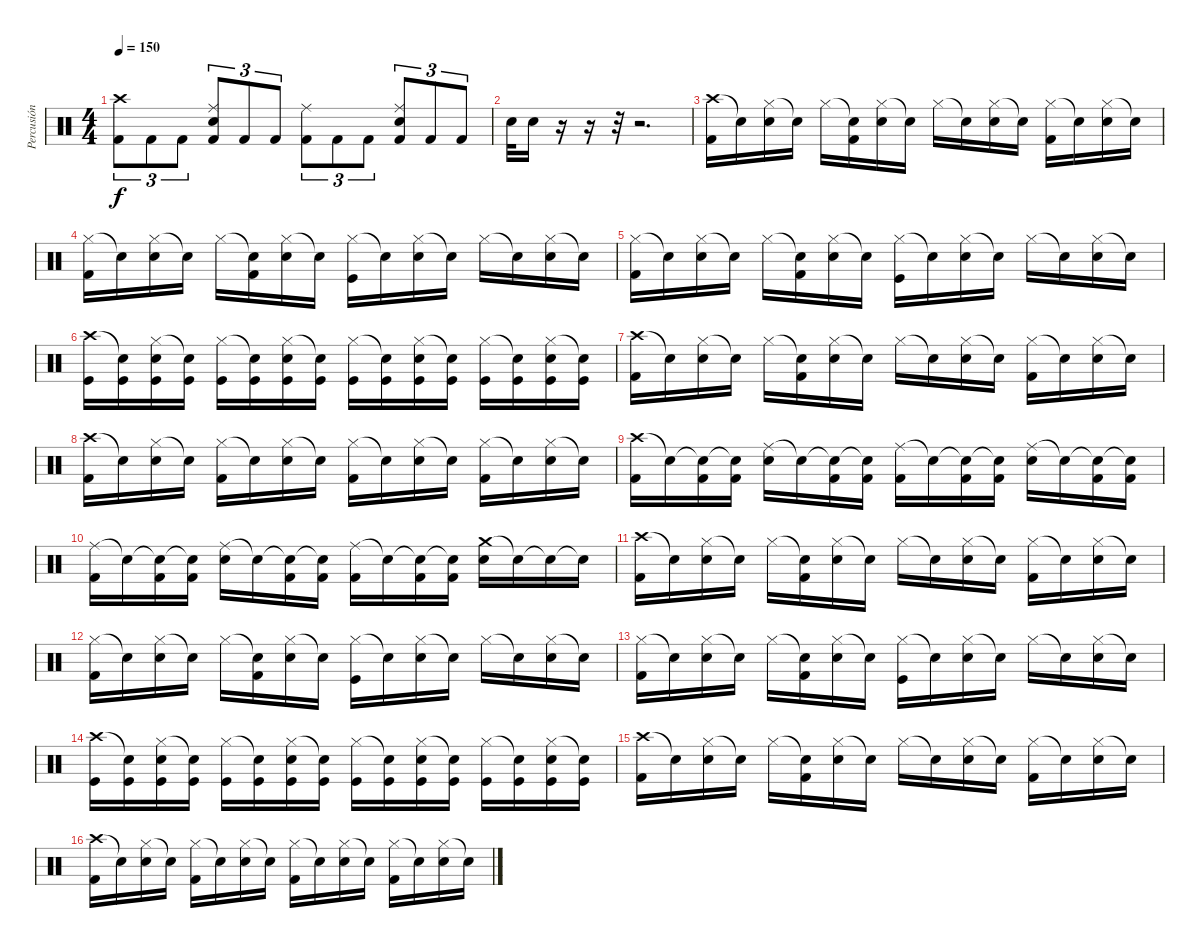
\track ("Percusión" "Percusión") {instrument percussion}
\staff {score}
\articulation defaults
\ts (4 4)
\tempo 150
\clef neutral
\ks c
("Crash high (hit)" "Kick (hit) 2").8{tu (3 2) dy f} "Kick (hit) 2".8{tu (3 2)} "Kick (hit) 2".8{tu (3 2)} ("Ride (middle)" "Electric Snare (hit)" "Kick (hit) 2").8{tu (3 2)} "Kick (hit) 2".8{tu (3 2)} "Kick (hit) 2".8{tu (3 2)} ("Ride (middle)" "Kick (hit) 2").8{tu (3 2)} "Kick (hit) 2".8{tu (3 2)} "Kick (hit) 2".8{tu (3 2)} ("Ride (middle)" "Electric Snare (hit)" "Kick (hit) 2").8{tu (3 2)} "Kick (hit) 2".8{tu (3 2)} "Kick (hit) 2".8{tu (3 2)} |
"Electric Snare (hit)".32 "Electric Snare (hit)".16 r.16 r.16 r.32 r.2{d} |
("Crash high (hit)" "Kick (hit) 2").16 "Snare (hit)"{t}.16 ("Hi-Hat (closed)" "Electric Snare (hit)").16 "Snare (hit)"{t}.16 "Hi-Hat (closed)".16 ("Snare (hit)"{t} "Kick (hit) 2").16 ("Hi-Hat (closed)" "Electric Snare (hit)").16 "Snare (hit)"{t}.16 "Hi-Hat (closed)".16 "Snare (hit)"{t}.16 ("Hi-Hat (closed)" "Electric Snare (hit)").16 "Snare (hit)"{t}.16 ("Hi-Hat (closed)" "Kick (hit) 2").16 "Snare (hit)"{t}.16 ("Hi-Hat (closed)" "Electric Snare (hit)").16 "Snare (hit)"{t}.16 |
("Hi-Hat (closed)" "Kick (hit) 2").16 "Snare (hit)"{t}.16 ("Hi-Hat (closed)" "Electric Snare (hit)").16 "Snare (hit)"{t}.16 "Hi-Hat (closed)".16 ("Snare (hit)"{t} "Kick (hit) 2").16 ("Hi-Hat (closed)" "Electric Snare (hit)").16 "Snare (hit)"{t}.16 ("Hi-Hat (closed)" "Kick (hit)").16 "Snare (hit)"{t}.16 ("Hi-Hat (closed)" "Electric Snare (hit)").16 "Snare (hit)"{t}.16 "Hi-Hat (closed)".16 "Snare (hit)"{t}.16 ("Hi-Hat (closed)" "Electric Snare (hit)").16 "Snare (hit)"{t}.16 |
("Hi-Hat (closed)" "Kick (hit) 2").16 "Snare (hit)"{t}.16 ("Hi-Hat (closed)" "Electric Snare (hit)").16 "Snare (hit)"{t}.16 "Hi-Hat (closed)".16 ("Snare (hit)"{t} "Kick (hit) 2").16 ("Hi-Hat (closed)" "Electric Snare (hit)").16 "Snare (hit)"{t}.16 ("Hi-Hat (closed)" "Kick (hit)").16 "Snare (hit)"{t}.16 ("Hi-Hat (closed)" "Electric Snare (hit)").16 "Snare (hit)"{t}.16 "Hi-Hat (closed)".16 "Snare (hit)"{t}.16 ("Hi-Hat (closed)" "Electric Snare (hit)").16 "Snare (hit)"{t}.16 |
("Crash high (hit)" "Kick (hit)").16 ("Snare (hit)"{t} "Kick (hit)").16 ("Hi-Hat (closed)" "Electric Snare (hit)" "Kick (hit)").16 ("Snare (hit)"{t} "Kick (hit)").16 ("Hi-Hat (closed)" "Kick (hit)").16 ("Snare (hit)"{t} "Kick (hit)").16 ("Hi-Hat (closed)" "Electric Snare (hit)" "Kick (hit)").16 ("Snare (hit)"{t} "Kick (hit)").16 ("Hi-Hat (closed)" "Kick (hit)").16 ("Snare (hit)"{t} "Kick (hit)").16 ("Hi-Hat (closed)" "Electric Snare (hit)" "Kick (hit)").16 ("Snare (hit)"{t} "Kick (hit)").16 ("Hi-Hat (closed)" "Kick (hit)").16 ("Snare (hit)"{t} "Kick (hit)").16 ("Hi-Hat (closed)" "Electric Snare (hit)" "Kick (hit)").16 ("Snare (hit)"{t} "Kick (hit)").16 |
("Crash high (hit)" "Kick (hit) 2").16 "Snare (hit)"{t}.16 ("Hi-Hat (closed)" "Electric Snare (hit)").16 "Snare (hit)"{t}.16 "Hi-Hat (closed)".16 ("Snare (hit)"{t} "Kick (hit) 2").16 ("Hi-Hat (closed)" "Electric Snare (hit)").16 "Snare (hit)"{t}.16 "Hi-Hat (closed)".16 "Snare (hit)"{t}.16 ("Hi-Hat (closed)" "Electric Snare (hit)").16 "Snare (hit)"{t}.16 ("Hi-Hat (closed)" "Kick (hit) 2").16 "Snare (hit)"{t}.16 ("Hi-Hat (closed)" "Electric Snare (hit)").16 "Snare (hit)"{t}.16 |
("Crash high (hit)" "Kick (hit) 2").16 "Snare (hit)"{t}.16 ("Hi-Hat (closed)" "Electric Snare (hit)").16 "Snare (hit)"{t}.16 ("Hi-Hat (closed)" "Kick (hit) 2").16 "Snare (hit)"{t}.16 ("Hi-Hat (closed)" "Electric Snare (hit)").16 "Snare (hit)"{t}.16 ("Hi-Hat (closed)" "Kick (hit) 2").16 "Snare (hit)"{t}.16 ("Hi-Hat (closed)" "Electric Snare (hit)").16 "Snare (hit)"{t}.16 ("Hi-Hat (closed)" "Kick (hit) 2").16 "Snare (hit)"{t}.16 ("Hi-Hat (closed)" "Electric Snare (hit)").16 "Snare (hit)"{t}.16 |
("Crash high (hit)" "Kick (hit) 2").16 "Snare (hit)"{t}.16 ("Snare (hit)"{t} "Kick (hit) 2").16 ("Snare (hit)"{t} "Kick (hit) 2").16 ("Ride (middle)" "Electric Snare (hit)").16 "Snare (hit)"{t}.16 ("Snare (hit)"{t} "Kick (hit) 2").16 ("Snare (hit)"{t} "Kick (hit) 2").16 ("Ride (middle)" "Kick (hit) 2").16 "Snare (hit)"{t}.16 ("Snare (hit)"{t} "Kick (hit) 2").16 ("Snare (hit)"{t} "Kick (hit) 2").16 ("Ride (middle)" "Electric Snare (hit)").16 "Snare (hit)"{t}.16 ("Snare (hit)"{t} "Kick (hit) 2").16 ("Snare (hit)"{t} "Kick (hit) 2").16 |
("Ride (middle)" "Kick (hit) 2").16 "Snare (hit)"{t}.16 ("Snare (hit)"{t} "Kick (hit) 2").16 ("Snare (hit)"{t} "Kick (hit) 2").16 ("Ride (middle)" "Electric Snare (hit)").16 "Snare (hit)"{t}.16 ("Snare (hit)"{t} "Kick (hit) 2").16 ("Snare (hit)"{t} "Kick (hit) 2").16 ("Ride (middle)" "Kick (hit) 2").16 "Snare (hit)"{t}.16 ("Snare (hit)"{t} "Kick (hit) 2").16 ("Snare (hit)"{t} "Kick (hit) 2").16 ("Crash medium (hit)" "Electric Snare (hit)").16 "Snare (hit)"{t}.16 "Snare (hit)"{t}.16 "Snare (hit)"{t}.16 |
("Crash high (hit)" "Kick (hit) 2").16 "Snare (hit)"{t}.16 ("Hi-Hat (closed)" "Electric Snare (hit)").16 "Snare (hit)"{t}.16 "Hi-Hat (closed)".16 ("Snare (hit)"{t} "Kick (hit) 2").16 ("Hi-Hat (closed)" "Electric Snare (hit)").16 "Snare (hit)"{t}.16 "Hi-Hat (closed)".16 "Snare (hit)"{t}.16 ("Hi-Hat (closed)" "Electric Snare (hit)").16 "Snare (hit)"{t}.16 ("Hi-Hat (closed)" "Kick (hit) 2").16 "Snare (hit)"{t}.16 ("Hi-Hat (closed)" "Electric Snare (hit)").16 "Snare (hit)"{t}.16 |
("Hi-Hat (closed)" "Kick (hit) 2").16 "Snare (hit)"{t}.16 ("Hi-Hat (closed)" "Electric Snare (hit)").16 "Snare (hit)"{t}.16 "Hi-Hat (closed)".16 ("Snare (hit)"{t} "Kick (hit) 2").16 ("Hi-Hat (closed)" "Electric Snare (hit)").16 "Snare (hit)"{t}.16 ("Hi-Hat (closed)" "Kick (hit)").16 "Snare (hit)"{t}.16 ("Hi-Hat (closed)" "Electric Snare (hit)").16 "Snare (hit)"{t}.16 "Hi-Hat (closed)".16 "Snare (hit)"{t}.16 ("Hi-Hat (closed)" "Electric Snare (hit)").16 "Snare (hit)"{t}.16 |
("Hi-Hat (closed)" "Kick (hit) 2").16 "Snare (hit)"{t}.16 ("Hi-Hat (closed)" "Electric Snare (hit)").16 "Snare (hit)"{t}.16 "Hi-Hat (closed)".16 ("Snare (hit)"{t} "Kick (hit) 2").16 ("Hi-Hat (closed)" "Electric Snare (hit)").16 "Snare (hit)"{t}.16 ("Hi-Hat (closed)" "Kick (hit)").16 "Snare (hit)"{t}.16 ("Hi-Hat (closed)" "Electric Snare (hit)").16 "Snare (hit)"{t}.16 "Hi-Hat (closed)".16 "Snare (hit)"{t}.16 ("Hi-Hat (closed)" "Electric Snare (hit)").16 "Snare (hit)"{t}.16 |
("Crash high (hit)" "Kick (hit)").16 ("Snare (hit)"{t} "Kick (hit)").16 ("Hi-Hat (closed)" "Electric Snare (hit)" "Kick (hit)").16 ("Snare (hit)"{t} "Kick (hit)").16 ("Hi-Hat (closed)" "Kick (hit)").16 ("Snare (hit)"{t} "Kick (hit)").16 ("Hi-Hat (closed)" "Electric Snare (hit)" "Kick (hit)").16 ("Snare (hit)"{t} "Kick (hit)").16 ("Hi-Hat (closed)" "Kick (hit)").16 ("Snare (hit)"{t} "Kick (hit)").16 ("Hi-Hat (closed)" "Electric Snare (hit)" "Kick (hit)").16 ("Snare (hit)"{t} "Kick (hit)").16 ("Hi-Hat (closed)" "Kick (hit)").16 ("Snare (hit)"{t} "Kick (hit)").16 ("Hi-Hat (closed)" "Electric Snare (hit)" "Kick (hit)").16 ("Snare (hit)"{t} "Kick (hit)").16 |
("Crash high (hit)" "Kick (hit) 2").16 "Snare (hit)"{t}.16 ("Hi-Hat (closed)" "Electric Snare (hit)").16 "Snare (hit)"{t}.16 "Hi-Hat (closed)".16 ("Snare (hit)"{t} "Kick (hit) 2").16 ("Hi-Hat (closed)" "Electric Snare (hit)").16 "Snare (hit)"{t}.16 "Hi-Hat (closed)".16 "Snare (hit)"{t}.16 ("Hi-Hat (closed)" "Electric Snare (hit)").16 "Snare (hit)"{t}.16 ("Hi-Hat (closed)" "Kick (hit) 2").16 "Snare (hit)"{t}.16 ("Hi-Hat (closed)" "Electric Snare (hit)").16 "Snare (hit)"{t}.16 |
("Crash high (hit)" "Kick (hit) 2").16 "Snare (hit)"{t}.16 ("Hi-Hat (closed)" "Electric Snare (hit)").16 "Snare (hit)"{t}.16 ("Hi-Hat (closed)" "Kick (hit) 2").16 "Snare (hit)"{t}.16 ("Hi-Hat (closed)" "Electric Snare (hit)").16 "Snare (hit)"{t}.16 ("Hi-Hat (closed)" "Kick (hit) 2").16 "Snare (hit)"{t}.16 ("Hi-Hat (closed)" "Electric Snare (hit)").16 "Snare (hit)"{t}.16 ("Hi-Hat (closed)" "Kick (hit) 2").16 "Snare (hit)"{t}.16 ("Hi-Hat (closed)" "Electric Snare (hit)").16 "Snare (hit)"{t}.16
